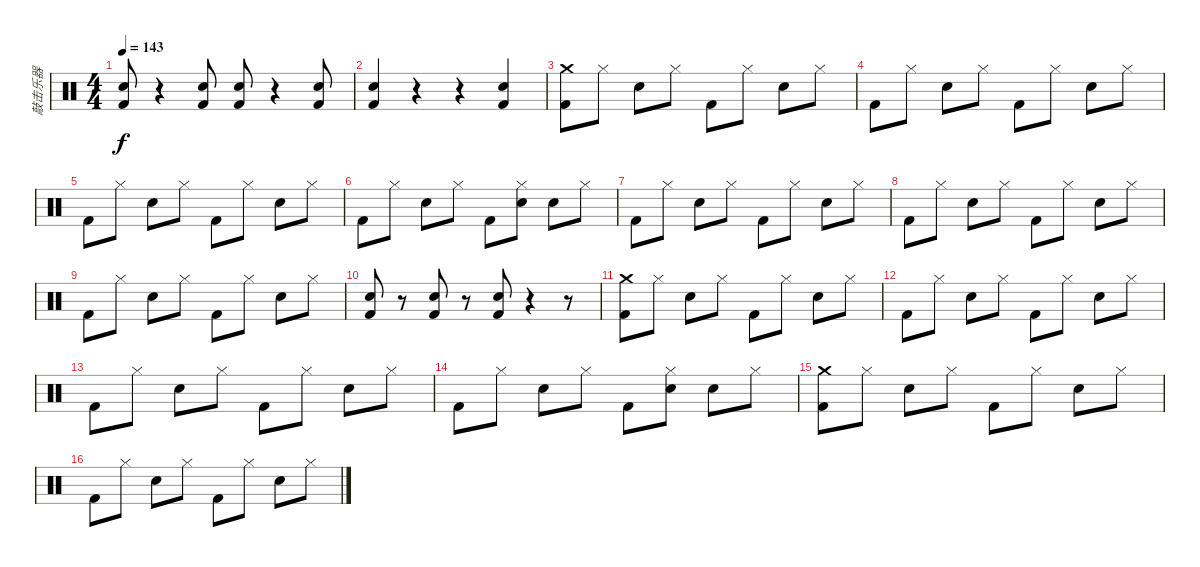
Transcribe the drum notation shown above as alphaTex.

\track ("敲击乐器" "敲击乐器") {instrument percussion}
\staff {score}
\articulation defaults
\ts (4 4)
\tempo 143
\clef neutral
\ks c
("Snare (hit) 2" "Kick (hit) 2").8{dy f} r.4 ("Snare (hit) 2" "Kick (hit) 2").8 ("Snare (hit) 2" "Kick (hit) 2").8 r.4 ("Snare (hit) 2" "Kick (hit) 2").8 |
("Snare (hit) 2" "Kick (hit) 2").4 r.4 r.4 ("Snare (hit) 2" "Kick (hit) 2").4 |
("Crash medium (hit)" "Kick (hit) 2").8 "Hi-Hat (closed)".8 "Snare (hit) 2".8 "Hi-Hat (closed)".8 "Kick (hit) 2".8 "Hi-Hat (closed)".8 "Snare (hit) 2".8 "Hi-Hat (closed)".8 |
"Kick (hit) 2".8 "Hi-Hat (closed)".8 "Snare (hit) 2".8 "Hi-Hat (closed)".8 "Kick (hit) 2".8 "Hi-Hat (closed)".8 "Snare (hit) 2".8 "Hi-Hat (closed)".8 |
"Kick (hit) 2".8 "Hi-Hat (closed)".8 "Snare (hit) 2".8 "Hi-Hat (closed)".8 "Kick (hit) 2".8 "Hi-Hat (closed)".8 "Snare (hit) 2".8 "Hi-Hat (closed)".8 |
"Kick (hit) 2".8 "Hi-Hat (closed)".8 "Snare (hit) 2".8 "Hi-Hat (closed)".8 "Kick (hit) 2".8 ("Hi-Hat (closed)" "Snare (hit) 2").8 "Snare (hit) 2".8 "Hi-Hat (closed)".8 |
"Kick (hit) 2".8 "Hi-Hat (closed)".8 "Snare (hit) 2".8 "Hi-Hat (closed)".8 "Kick (hit) 2".8 "Hi-Hat (closed)".8 "Snare (hit) 2".8 "Hi-Hat (closed)".8 |
"Kick (hit) 2".8 "Hi-Hat (closed)".8 "Snare (hit) 2".8 "Hi-Hat (closed)".8 "Kick (hit) 2".8 "Hi-Hat (closed)".8 "Snare (hit) 2".8 "Hi-Hat (closed)".8 |
"Kick (hit) 2".8 "Hi-Hat (closed)".8 "Snare (hit) 2".8 "Hi-Hat (closed)".8 "Kick (hit) 2".8 "Hi-Hat (closed)".8 "Snare (hit) 2".8 "Hi-Hat (closed)".8 |
("Snare (hit) 2" "Kick (hit) 2").8 r.8 ("Snare (hit) 2" "Kick (hit) 2").8 r.8 ("Snare (hit) 2" "Kick (hit) 2").8 r.4 r.8 |
("Crash medium (hit)" "Kick (hit) 2").8 "Hi-Hat (closed)".8 "Snare (hit) 2".8 "Hi-Hat (closed)".8 "Kick (hit) 2".8 "Hi-Hat (closed)".8 "Snare (hit) 2".8 "Hi-Hat (closed)".8 |
"Kick (hit) 2".8 "Hi-Hat (closed)".8 "Snare (hit) 2".8 "Hi-Hat (closed)".8 "Kick (hit) 2".8 "Hi-Hat (closed)".8 "Snare (hit) 2".8 "Hi-Hat (closed)".8 |
"Kick (hit) 2".8 "Hi-Hat (closed)".8 "Snare (hit) 2".8 "Hi-Hat (closed)".8 "Kick (hit) 2".8 "Hi-Hat (closed)".8 "Snare (hit) 2".8 "Hi-Hat (closed)".8 |
"Kick (hit) 2".8 "Hi-Hat (closed)".8 "Snare (hit) 2".8 "Hi-Hat (closed)".8 "Kick (hit) 2".8 ("Hi-Hat (closed)" "Snare (hit) 2").8 "Snare (hit) 2".8 "Hi-Hat (closed)".8 |
("Crash medium (hit)" "Kick (hit) 2").8 "Hi-Hat (closed)".8 "Snare (hit) 2".8 "Hi-Hat (closed)".8 "Kick (hit) 2".8 "Hi-Hat (closed)".8 "Snare (hit) 2".8 "Hi-Hat (closed)".8 |
"Kick (hit) 2".8 "Hi-Hat (closed)".8 "Snare (hit) 2".8 "Hi-Hat (closed)".8 "Kick (hit) 2".8 "Hi-Hat (closed)".8 "Snare (hit) 2".8 "Hi-Hat (closed)".8
